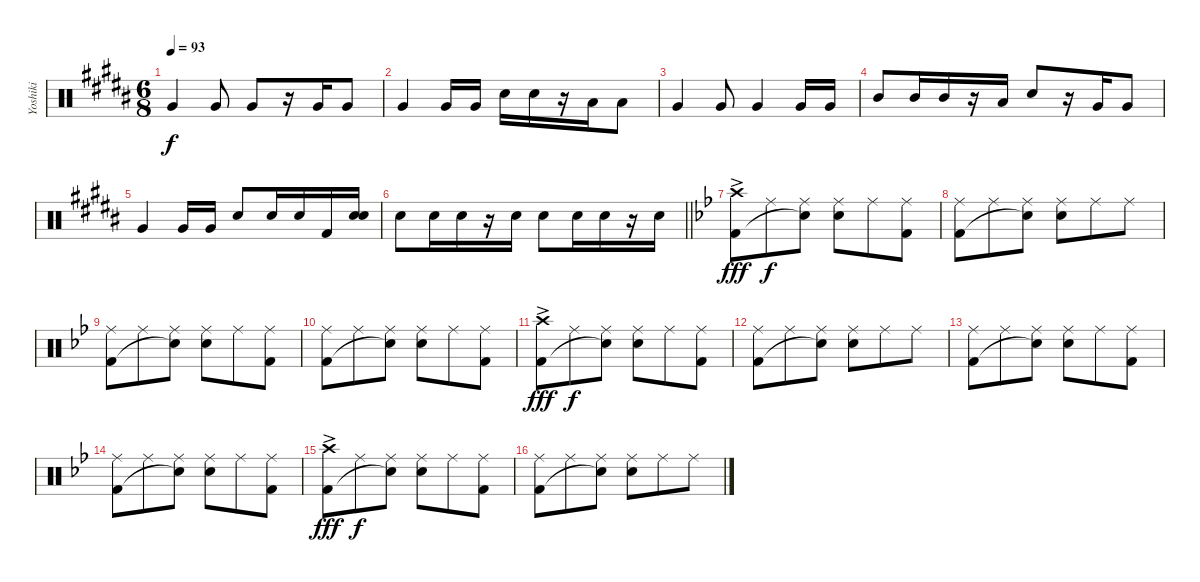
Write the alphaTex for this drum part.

\track ("Yoshiki" "Yoshiki") {instrument percussion}
\staff {score}
\articulation defaults
\ts (6 8)
\tempo 93
\clef neutral
\ks b "Very Low Tom (hit)".4{dy f volume 16} "Very Low Tom (hit)".8 "Very Low Tom (hit)".8
r.16 "Very Low Tom (hit)".16 "Very Low Tom (hit)".8 |
"Very Low Tom (hit)".4 "Very Low Tom (hit)".16 "Very Low Tom (hit)".16 "Snare (hit) 2".16 "Snare (hit) 2".16 r.16 "Low Tom (hit)".16 "Low Tom (hit)".8 |
"Very Low Tom (hit)".4 "Very Low Tom (hit)".8 "Very Low Tom (hit)".4 "Very Low Tom (hit)".16 "Very Low Tom (hit)".16 |
"Mid Tom (hit)".8 "Mid Tom (hit)".16 "Mid Tom (hit)".16 r.16 "Low Tom (hit)".16 "Snare (hit) 2".8 r.16 "Very Low Tom (hit)".16 "Very Low Tom (hit)".8 |
"Very Low Tom (hit)".4 "Very Low Tom (hit)".16 "Very Low Tom (hit)".16 "Snare (hit) 2".8 "Snare (hit) 2".16 "Snare (hit) 2".16 "Kick (hit) 2".16 ("Snare (hit) 2" "Snare (hit)").16 |
\barLineRight lightlight "Snare (hit) 2".8 "Snare (hit) 2".16 "Snare (hit) 2".16
r.16 "Snare (hit) 2".16 "Snare (hit) 2".8 "Snare (hit) 2".16 "Snare (hit) 2".16 r.16 "Snare (hit) 2".16 |
\ks bb
("Crash high (hit)"{ac} "Kick (hit) 2"{ac}).8{dy fff volume 12} "Ride (middle)".8{dy f} ("Ride (middle)" "Snare (hit)"{t}).8 ("Ride (middle)" "Snare (hit) 2").8 "Ride (middle)".8 ("Ride (middle)" "Kick (hit) 2").8 |
("Ride (middle)" "Kick (hit) 2").8 "Ride (middle)".8 ("Ride (middle)" "Snare (hit)"{t}).8 ("Ride (middle)" "Snare (hit) 2").8 "Ride (middle)".8 "Ride (middle)".8 |
("Ride (middle)" "Kick (hit) 2").8 "Ride (middle)".8 ("Ride (middle)" "Snare (hit)"{t}).8 ("Ride (middle)" "Snare (hit) 2").8 "Ride (middle)".8 ("Ride (middle)" "Kick (hit) 2").8 |
("Ride (middle)" "Kick (hit) 2").8 "Ride (middle)".8 ("Ride (middle)" "Snare (hit)"{t}).8 ("Ride (middle)" "Snare (hit) 2").8 "Ride (middle)".8 ("Ride (middle)" "Kick (hit) 2").8 |
("Crash high (hit)"{ac} "Kick (hit) 2"{ac}).8{dy fff} "Ride (middle)".8{dy f} ("Ride (middle)" "Snare (hit)"{t}).8 ("Ride (middle)" "Snare (hit) 2").8 "Ride (middle)".8 ("Ride (middle)" "Kick (hit) 2").8 |
("Ride (middle)" "Kick (hit) 2").8 "Ride (middle)".8 ("Ride (middle)" "Snare (hit)"{t}).8 ("Ride (middle)" "Snare (hit) 2").8 "Ride (middle)".8 "Ride (middle)".8 |
("Ride (middle)" "Kick (hit) 2").8 "Ride (middle)".8 ("Ride (middle)" "Snare (hit)"{t}).8 ("Ride (middle)" "Snare (hit) 2").8 "Ride (middle)".8 ("Ride (middle)" "Kick (hit) 2").8 |
("Ride (middle)" "Kick (hit) 2").8 "Ride (middle)".8 ("Ride (middle)" "Snare (hit)"{t}).8 ("Ride (middle)" "Snare (hit) 2").8 "Ride (middle)".8 ("Ride (middle)" "Kick (hit) 2").8 |
("Crash high (hit)"{ac} "Kick (hit) 2"{ac}).8{dy fff} "Ride (middle)".8{dy f} ("Ride (middle)" "Snare (hit)"{t}).8 ("Ride (middle)" "Snare (hit) 2").8 "Ride (middle)".8 ("Ride (middle)" "Kick (hit) 2").8 |
("Ride (middle)" "Kick (hit) 2").8 "Ride (middle)".8 ("Ride (middle)" "Snare (hit)"{t}).8 ("Ride (middle)" "Snare (hit) 2").8 "Ride (middle)".8 "Ride (middle)".8
